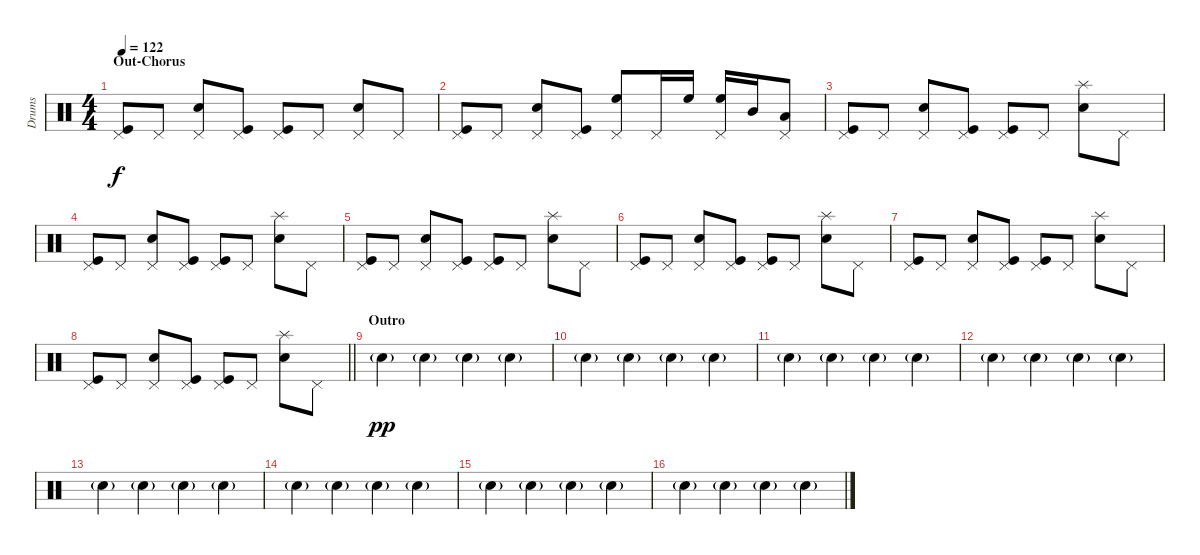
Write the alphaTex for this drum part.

\track ("Drums" "Drums") {instrument percussion}
\staff {score}
\articulation defaults
\ts (4 4)
\section ("" "Out-Chorus")
\tempo 122
\clef neutral
\ks c
("Pedal Hi-Hat (hit)" "Kick (hit)").8{dy f} "Pedal Hi-Hat (hit)".8 ("Pedal Hi-Hat (hit)" "Electric Snare (hit)").8 ("Pedal Hi-Hat (hit)" "Kick (hit)").8 ("Pedal Hi-Hat (hit)" "Kick (hit)").8 "Pedal Hi-Hat (hit)".8 ("Pedal Hi-Hat (hit)" "Electric Snare (hit)").8 "Pedal Hi-Hat (hit)".8 |
("Pedal Hi-Hat (hit)" "Kick (hit)").8 "Pedal Hi-Hat (hit)".8 ("Pedal Hi-Hat (hit)" "Electric Snare (hit)").8 ("Pedal Hi-Hat (hit)" "Kick (hit)").8 ("Pedal Hi-Hat (hit)" "High Floor Tom (hit)").8 "Pedal Hi-Hat (hit)".16 "High Floor Tom (hit)".16 ("Pedal Hi-Hat (hit)" "High Floor Tom (hit)").16 "Mid Tom (hit)".16 ("Pedal Hi-Hat (hit)" "Low Tom (hit)").8 |
("Pedal Hi-Hat (hit)" "Kick (hit)").8 "Pedal Hi-Hat (hit)".8 ("Pedal Hi-Hat (hit)" "Electric Snare (hit)").8 ("Pedal Hi-Hat (hit)" "Kick (hit)").8 ("Pedal Hi-Hat (hit)" "Kick (hit)").8 "Pedal Hi-Hat (hit)".8 ("Splash (hit)" "Electric Snare (hit)").8 "Pedal Hi-Hat (hit)".8 |
("Pedal Hi-Hat (hit)" "Kick (hit)").8 "Pedal Hi-Hat (hit)".8 ("Pedal Hi-Hat (hit)" "Electric Snare (hit)").8 ("Pedal Hi-Hat (hit)" "Kick (hit)").8 ("Pedal Hi-Hat (hit)" "Kick (hit)").8 "Pedal Hi-Hat (hit)".8 ("Splash (hit)" "Electric Snare (hit)").8 "Pedal Hi-Hat (hit)".8 |
("Pedal Hi-Hat (hit)" "Kick (hit)").8 "Pedal Hi-Hat (hit)".8 ("Pedal Hi-Hat (hit)" "Electric Snare (hit)").8 ("Pedal Hi-Hat (hit)" "Kick (hit)").8 ("Pedal Hi-Hat (hit)" "Kick (hit)").8 "Pedal Hi-Hat (hit)".8 ("Splash (hit)" "Electric Snare (hit)").8 "Pedal Hi-Hat (hit)".8 |
("Pedal Hi-Hat (hit)" "Kick (hit)").8 "Pedal Hi-Hat (hit)".8 ("Pedal Hi-Hat (hit)" "Electric Snare (hit)").8 ("Pedal Hi-Hat (hit)" "Kick (hit)").8 ("Pedal Hi-Hat (hit)" "Kick (hit)").8 "Pedal Hi-Hat (hit)".8 ("Splash (hit)" "Electric Snare (hit)").8 "Pedal Hi-Hat (hit)".8 |
("Pedal Hi-Hat (hit)" "Kick (hit)").8 "Pedal Hi-Hat (hit)".8 ("Pedal Hi-Hat (hit)" "Electric Snare (hit)").8 ("Pedal Hi-Hat (hit)" "Kick (hit)").8 ("Pedal Hi-Hat (hit)" "Kick (hit)").8 "Pedal Hi-Hat (hit)".8 ("Splash (hit)" "Electric Snare (hit)").8 "Pedal Hi-Hat (hit)".8 |
\barLineRight lightlight
("Pedal Hi-Hat (hit)" "Kick (hit)").8 "Pedal Hi-Hat (hit)".8 ("Pedal Hi-Hat (hit)" "Electric Snare (hit)").8 ("Pedal Hi-Hat (hit)" "Kick (hit)").8 ("Pedal Hi-Hat (hit)" "Kick (hit)").8 "Pedal Hi-Hat (hit)".8 ("Splash (hit)" "Electric Snare (hit)").8 "Pedal Hi-Hat (hit)".8 |
\section ("" "Outro")
"Hand Clap (hit)"{g}.4{dy pp} "Hand Clap (hit)"{g}.4 "Hand Clap (hit)"{g}.4 "Hand Clap (hit)"{g}.4 |
"Hand Clap (hit)"{g}.4 "Hand Clap (hit)"{g}.4 "Hand Clap (hit)"{g}.4 "Hand Clap (hit)"{g}.4 |
"Hand Clap (hit)"{g}.4 "Hand Clap (hit)"{g}.4 "Hand Clap (hit)"{g}.4 "Hand Clap (hit)"{g}.4 |
"Hand Clap (hit)"{g}.4 "Hand Clap (hit)"{g}.4 "Hand Clap (hit)"{g}.4 "Hand Clap (hit)"{g}.4 |
"Hand Clap (hit)"{g}.4 "Hand Clap (hit)"{g}.4 "Hand Clap (hit)"{g}.4 "Hand Clap (hit)"{g}.4 |
"Hand Clap (hit)"{g}.4 "Hand Clap (hit)"{g}.4 "Hand Clap (hit)"{g}.4 "Hand Clap (hit)"{g}.4 |
"Hand Clap (hit)"{g}.4 "Hand Clap (hit)"{g}.4 "Hand Clap (hit)"{g}.4 "Hand Clap (hit)"{g}.4 |
"Hand Clap (hit)"{g}.4 "Hand Clap (hit)"{g}.4 "Hand Clap (hit)"{g}.4 "Hand Clap (hit)"{g}.4
